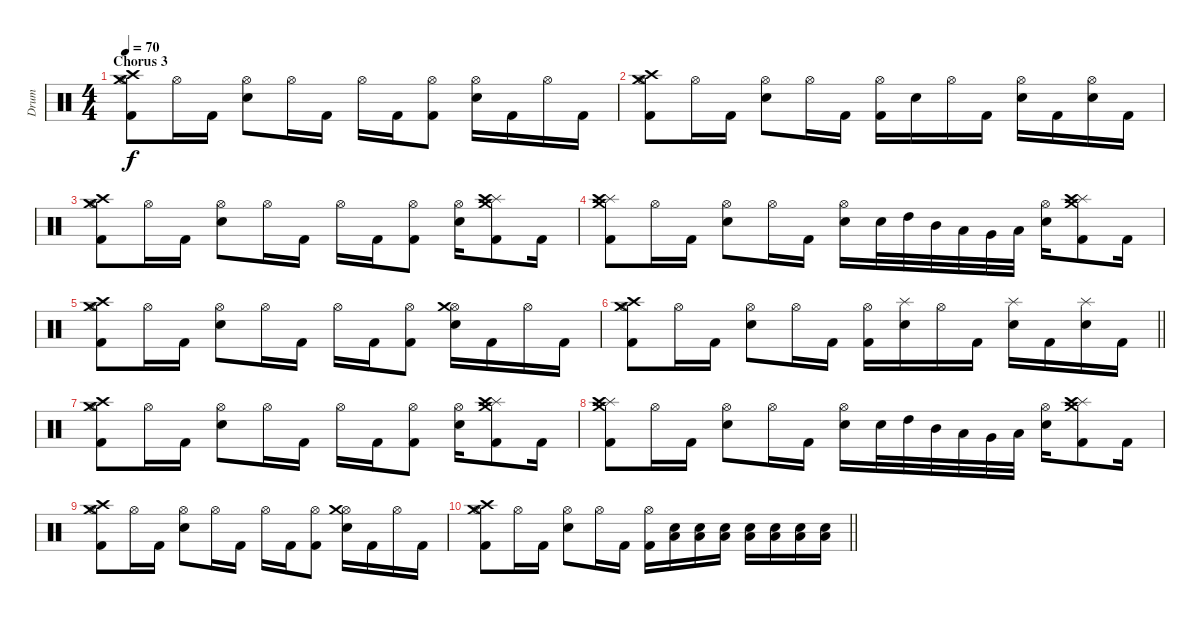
\track ("Drum" "Drum") {instrument percussion}
\staff {score}
\articulation defaults
\ts (4 4)
\section ("" "Chorus 3")
\tempo 70
\clef neutral
\ks c
("Hi-Hat (open)" "Crash high (hit)" "Crash medium (hit)" "Kick (hit) 2").8{dy f} "Hi-Hat (open)".16 "Kick (hit) 2".16 ("Hi-Hat (open)" "Electric Snare (hit)").8 "Hi-Hat (open)".16 "Kick (hit) 2".16 "Hi-Hat (open)".16 "Kick (hit) 2".16 ("Hi-Hat (open)" "Kick (hit) 2").8 ("Hi-Hat (open)" "Electric Snare (hit)").16 "Kick (hit) 2".16 "Hi-Hat (open)".16 "Kick (hit) 2".16 |
("Hi-Hat (open)" "Crash high (hit)" "Crash medium (hit)" "Kick (hit) 2").8 "Hi-Hat (open)".16 "Kick (hit) 2".16 ("Hi-Hat (open)" "Electric Snare (hit)").8 "Hi-Hat (open)".16 "Kick (hit) 2".16 ("Hi-Hat (open)" "Kick (hit) 2").16 "Electric Snare (hit)".16 "Hi-Hat (open)".16 "Kick (hit) 2".16 ("Hi-Hat (open)" "Electric Snare (hit)").16 "Kick (hit) 2".16 ("Hi-Hat (open)" "Electric Snare (hit)").16 "Kick (hit) 2".16 |
("Hi-Hat (open)" "Crash high (hit)" "Crash medium (hit)" "Kick (hit) 2").8 "Hi-Hat (open)".16 "Kick (hit) 2".16 ("Hi-Hat (open)" "Electric Snare (hit)").8 "Hi-Hat (open)".16 "Kick (hit) 2".16 "Hi-Hat (open)".16 "Kick (hit) 2".16 ("Hi-Hat (open)" "Kick (hit) 2").8 ("Hi-Hat (open)" "Electric Snare (hit)").16 ("Splash (hit)" "Crash high (hit)" "Crash medium (hit)" "Kick (hit) 2").8 "Kick (hit) 2".16 |
("Splash (hit)" "Crash high (hit)" "Crash medium (hit)" "Kick (hit) 2").8 "Hi-Hat (open)".16 "Kick (hit) 2".16 ("Hi-Hat (open)" "Electric Snare (hit)").8 "Hi-Hat (open)".16 "Kick (hit) 2".16 ("Hi-Hat (open)" "Electric Snare (hit)").16 "Electric Snare (hit)".32 "High Tom (hit)".32 "Mid Tom (hit)".32 "Low Tom (hit)".32 "Very Low Tom (hit)".32 "Low Floor Tom (hit)".32 ("Hi-Hat (open)" "Electric Snare (hit)").16 ("Splash (hit)" "Crash high (hit)" "Crash medium (hit)" "Kick (hit) 2").8 "Kick (hit) 2".16 |
("Hi-Hat (open)" "Crash high (hit)" "Crash medium (hit)" "Kick (hit) 2").8 "Hi-Hat (open)".16 "Kick (hit) 2".16 ("Hi-Hat (open)" "Electric Snare (hit)").8 "Hi-Hat (open)".16 "Kick (hit) 2".16 "Hi-Hat (open)".16 "Kick (hit) 2".16 ("Hi-Hat (open)" "Kick (hit) 2").8 ("Hi-Hat (open)" "Crash medium (hit)" "Electric Snare (hit)").16 "Kick (hit) 2".16 "Hi-Hat (open)".16 "Kick (hit) 2".16 |
\barLineRight lightlight
("Hi-Hat (open)" "Crash high (hit)" "Crash medium (hit)" "Kick (hit) 2").8 "Hi-Hat (open)".16 "Kick (hit) 2".16 ("Hi-Hat (open)" "Electric Snare (hit)").8 "Hi-Hat (open)".16 "Kick (hit) 2".16 ("Hi-Hat (open)" "Kick (hit) 2").16 ("Splash (hit)" "Electric Snare (hit)").16 "Hi-Hat (open)".16 "Kick (hit) 2".16 ("Splash (hit)" "Electric Snare (hit)").16 "Kick (hit) 2".16 ("Splash (hit)" "Electric Snare (hit)").16 "Kick (hit) 2".16 |
("Hi-Hat (open)" "Crash high (hit)" "Crash medium (hit)" "Kick (hit) 2").8 "Hi-Hat (open)".16 "Kick (hit) 2".16 ("Hi-Hat (open)" "Electric Snare (hit)").8 "Hi-Hat (open)".16 "Kick (hit) 2".16 "Hi-Hat (open)".16 "Kick (hit) 2".16 ("Hi-Hat (open)" "Kick (hit) 2").8 ("Hi-Hat (open)" "Electric Snare (hit)").16 ("Splash (hit)" "Crash high (hit)" "Crash medium (hit)" "Kick (hit) 2").8 "Kick (hit) 2".16 |
("Splash (hit)" "Crash high (hit)" "Crash medium (hit)" "Kick (hit) 2").8 "Hi-Hat (open)".16 "Kick (hit) 2".16 ("Hi-Hat (open)" "Electric Snare (hit)").8 "Hi-Hat (open)".16 "Kick (hit) 2".16 ("Hi-Hat (open)" "Electric Snare (hit)").16 "Electric Snare (hit)".32 "High Tom (hit)".32 "Mid Tom (hit)".32 "Low Tom (hit)".32 "Very Low Tom (hit)".32 "Low Floor Tom (hit)".32 ("Hi-Hat (open)" "Electric Snare (hit)").16 ("Splash (hit)" "Crash high (hit)" "Crash medium (hit)" "Kick (hit) 2").8 "Kick (hit) 2".16 |
("Hi-Hat (open)" "Crash high (hit)" "Crash medium (hit)" "Kick (hit) 2").8 "Hi-Hat (open)".16 "Kick (hit) 2".16 ("Hi-Hat (open)" "Electric Snare (hit)").8 "Hi-Hat (open)".16 "Kick (hit) 2".16 "Hi-Hat (open)".16 "Kick (hit) 2".16 ("Hi-Hat (open)" "Kick (hit) 2").8 ("Hi-Hat (open)" "Crash medium (hit)" "Electric Snare (hit)").16 "Kick (hit) 2".16 "Hi-Hat (open)".16 "Kick (hit) 2".16 |
\barLineRight lightlight
("Hi-Hat (open)" "Crash high (hit)" "Crash medium (hit)" "Kick (hit) 2").8 "Hi-Hat (open)".16 "Kick (hit) 2".16 ("Hi-Hat (open)" "Electric Snare (hit)").8 "Hi-Hat (open)".16 "Kick (hit) 2".16 ("Hi-Hat (open)" "Kick (hit) 2").16 ("Electric Snare (hit)" "Low Tom (hit)").16 ("Electric Snare (hit)" "Low Tom (hit)").16 ("Electric Snare (hit)" "Low Tom (hit)").16 ("Electric Snare (hit)" "Low Tom (hit)").16 ("Electric Snare (hit)" "Low Tom (hit)").16 ("Electric Snare (hit)" "Low Tom (hit)").16 ("Electric Snare (hit)" "Low Tom (hit)").16
